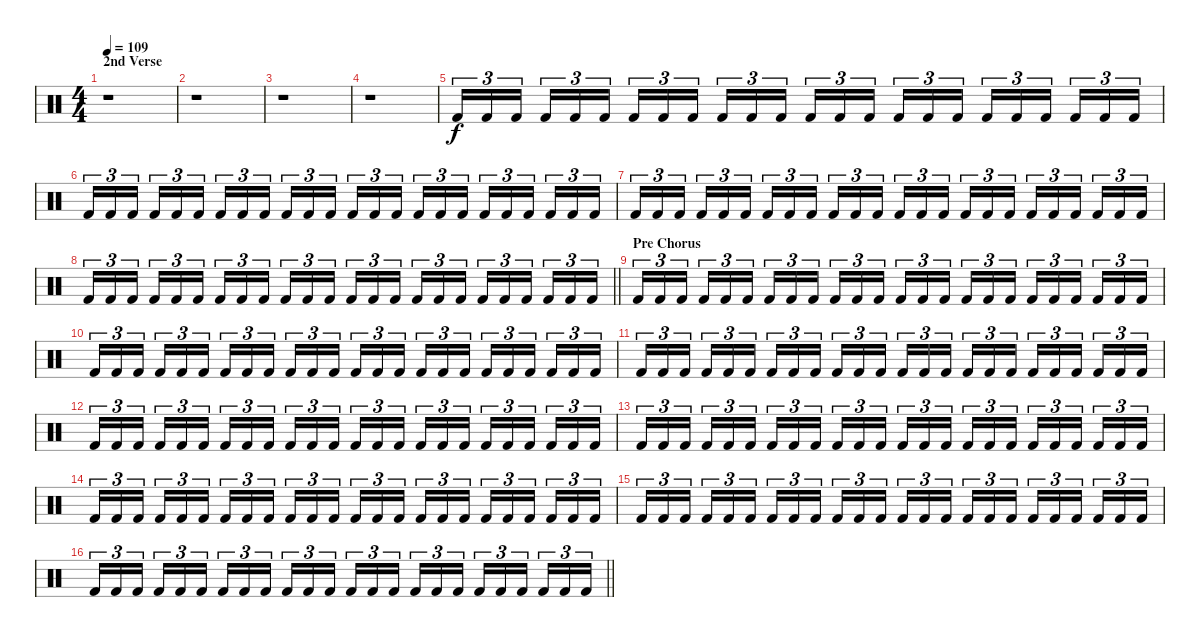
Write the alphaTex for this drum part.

\track "" {instrument percussion}
\staff {score}
\articulation defaults
\ts (4 4)
\section ("" "2nd Verse")
\tempo 109
\clef neutral
\ks c
r.1{dy f} |
r.1 |
r.1 |
r.1 |
"Kick (hit) 2".16{tu (3 2)} "Kick (hit) 2".16{tu (3 2)} "Kick (hit) 2".16{tu (3 2) beam splitsecondary} "Kick (hit) 2".16{tu (3 2)} "Kick (hit) 2".16{tu (3 2)} "Kick (hit) 2".16{tu (3 2)} "Kick (hit) 2".16{tu (3 2)} "Kick (hit) 2".16{tu (3 2)} "Kick (hit) 2".16{tu (3 2) beam splitsecondary} "Kick (hit) 2".16{tu (3 2)} "Kick (hit) 2".16{tu (3 2)} "Kick (hit) 2".16{tu (3 2)} "Kick (hit) 2".16{tu (3 2)} "Kick (hit) 2".16{tu (3 2)} "Kick (hit) 2".16{tu (3 2) beam splitsecondary} "Kick (hit) 2".16{tu (3 2)} "Kick (hit) 2".16{tu (3 2)} "Kick (hit) 2".16{tu (3 2)} "Kick (hit) 2".16{tu (3 2)} "Kick (hit) 2".16{tu (3 2)} "Kick (hit) 2".16{tu (3 2) beam splitsecondary} "Kick (hit) 2".16{tu (3 2)} "Kick (hit) 2".16{tu (3 2)} "Kick (hit) 2".16{tu (3 2)} |
"Kick (hit) 2".16{tu (3 2)} "Kick (hit) 2".16{tu (3 2)} "Kick (hit) 2".16{tu (3 2) beam splitsecondary} "Kick (hit) 2".16{tu (3 2)} "Kick (hit) 2".16{tu (3 2)} "Kick (hit) 2".16{tu (3 2)} "Kick (hit) 2".16{tu (3 2)} "Kick (hit) 2".16{tu (3 2)} "Kick (hit) 2".16{tu (3 2) beam splitsecondary} "Kick (hit) 2".16{tu (3 2)} "Kick (hit) 2".16{tu (3 2)} "Kick (hit) 2".16{tu (3 2)} "Kick (hit) 2".16{tu (3 2)} "Kick (hit) 2".16{tu (3 2)} "Kick (hit) 2".16{tu (3 2) beam splitsecondary} "Kick (hit) 2".16{tu (3 2)} "Kick (hit) 2".16{tu (3 2)} "Kick (hit) 2".16{tu (3 2)} "Kick (hit) 2".16{tu (3 2)} "Kick (hit) 2".16{tu (3 2)} "Kick (hit) 2".16{tu (3 2) beam splitsecondary} "Kick (hit) 2".16{tu (3 2)} "Kick (hit) 2".16{tu (3 2)} "Kick (hit) 2".16{tu (3 2)} |
"Kick (hit) 2".16{tu (3 2)} "Kick (hit) 2".16{tu (3 2)} "Kick (hit) 2".16{tu (3 2) beam splitsecondary} "Kick (hit) 2".16{tu (3 2)} "Kick (hit) 2".16{tu (3 2)} "Kick (hit) 2".16{tu (3 2)} "Kick (hit) 2".16{tu (3 2)} "Kick (hit) 2".16{tu (3 2)} "Kick (hit) 2".16{tu (3 2) beam splitsecondary} "Kick (hit) 2".16{tu (3 2)} "Kick (hit) 2".16{tu (3 2)} "Kick (hit) 2".16{tu (3 2)} "Kick (hit) 2".16{tu (3 2)} "Kick (hit) 2".16{tu (3 2)} "Kick (hit) 2".16{tu (3 2) beam splitsecondary} "Kick (hit) 2".16{tu (3 2)} "Kick (hit) 2".16{tu (3 2)} "Kick (hit) 2".16{tu (3 2)} "Kick (hit) 2".16{tu (3 2)} "Kick (hit) 2".16{tu (3 2)} "Kick (hit) 2".16{tu (3 2) beam splitsecondary} "Kick (hit) 2".16{tu (3 2)} "Kick (hit) 2".16{tu (3 2)} "Kick (hit) 2".16{tu (3 2)} |
\barLineRight lightlight "Kick (hit) 2".16{tu (3 2)} "Kick (hit) 2".16{tu (3 2)} "Kick (hit) 2".16{tu (3 2) beam splitsecondary} "Kick (hit) 2".16{tu (3 2)} "Kick (hit) 2".16{tu (3 2)} "Kick (hit) 2".16{tu (3 2)} "Kick (hit) 2".16{tu (3 2)} "Kick (hit) 2".16{tu (3 2)} "Kick (hit) 2".16{tu (3 2) beam splitsecondary} "Kick (hit) 2".16{tu (3 2)} "Kick (hit) 2".16{tu (3 2)} "Kick (hit) 2".16{tu (3 2)} "Kick (hit) 2".16{tu (3 2)} "Kick (hit) 2".16{tu (3 2)} "Kick (hit) 2".16{tu (3 2) beam splitsecondary} "Kick (hit) 2".16{tu (3 2)} "Kick (hit) 2".16{tu (3 2)} "Kick (hit) 2".16{tu (3 2)} "Kick (hit) 2".16{tu (3 2)} "Kick (hit) 2".16{tu (3 2)} "Kick (hit) 2".16{tu (3 2) beam splitsecondary} "Kick (hit) 2".16{tu (3 2)} "Kick (hit) 2".16{tu (3 2)} "Kick (hit) 2".16{tu (3 2)}
|
\section ("" "Pre Chorus")
"Kick (hit) 2".16{tu (3 2)} "Kick (hit) 2".16{tu (3 2)} "Kick (hit) 2".16{tu (3 2) beam splitsecondary} "Kick (hit) 2".16{tu (3 2)} "Kick (hit) 2".16{tu (3 2)} "Kick (hit) 2".16{tu (3 2)} "Kick (hit) 2".16{tu (3 2)} "Kick (hit) 2".16{tu (3 2)} "Kick (hit) 2".16{tu (3 2) beam splitsecondary} "Kick (hit) 2".16{tu (3 2)} "Kick (hit) 2".16{tu (3 2)} "Kick (hit) 2".16{tu (3 2)} "Kick (hit) 2".16{tu (3 2)} "Kick (hit) 2".16{tu (3 2)} "Kick (hit) 2".16{tu (3 2) beam splitsecondary} "Kick (hit) 2".16{tu (3 2)} "Kick (hit) 2".16{tu (3 2)} "Kick (hit) 2".16{tu (3 2)} "Kick (hit) 2".16{tu (3 2)} "Kick (hit) 2".16{tu (3 2)} "Kick (hit) 2".16{tu (3 2) beam splitsecondary} "Kick (hit) 2".16{tu (3 2)} "Kick (hit) 2".16{tu (3 2)} "Kick (hit) 2".16{tu (3 2)} |
"Kick (hit) 2".16{tu (3 2)} "Kick (hit) 2".16{tu (3 2)} "Kick (hit) 2".16{tu (3 2) beam splitsecondary} "Kick (hit) 2".16{tu (3 2)} "Kick (hit) 2".16{tu (3 2)} "Kick (hit) 2".16{tu (3 2)} "Kick (hit) 2".16{tu (3 2)} "Kick (hit) 2".16{tu (3 2)} "Kick (hit) 2".16{tu (3 2) beam splitsecondary} "Kick (hit) 2".16{tu (3 2)} "Kick (hit) 2".16{tu (3 2)} "Kick (hit) 2".16{tu (3 2)} "Kick (hit) 2".16{tu (3 2)} "Kick (hit) 2".16{tu (3 2)} "Kick (hit) 2".16{tu (3 2) beam splitsecondary} "Kick (hit) 2".16{tu (3 2)} "Kick (hit) 2".16{tu (3 2)} "Kick (hit) 2".16{tu (3 2)} "Kick (hit) 2".16{tu (3 2)} "Kick (hit) 2".16{tu (3 2)} "Kick (hit) 2".16{tu (3 2) beam splitsecondary} "Kick (hit) 2".16{tu (3 2)} "Kick (hit) 2".16{tu (3 2)} "Kick (hit) 2".16{tu (3 2)} |
"Kick (hit) 2".16{tu (3 2)} "Kick (hit) 2".16{tu (3 2)} "Kick (hit) 2".16{tu (3 2) beam splitsecondary} "Kick (hit) 2".16{tu (3 2)} "Kick (hit) 2".16{tu (3 2)} "Kick (hit) 2".16{tu (3 2)} "Kick (hit) 2".16{tu (3 2)} "Kick (hit) 2".16{tu (3 2)} "Kick (hit) 2".16{tu (3 2) beam splitsecondary} "Kick (hit) 2".16{tu (3 2)} "Kick (hit) 2".16{tu (3 2)} "Kick (hit) 2".16{tu (3 2)} "Kick (hit) 2".16{tu (3 2)} "Kick (hit) 2".16{tu (3 2)} "Kick (hit) 2".16{tu (3 2) beam splitsecondary} "Kick (hit) 2".16{tu (3 2)} "Kick (hit) 2".16{tu (3 2)} "Kick (hit) 2".16{tu (3 2)} "Kick (hit) 2".16{tu (3 2)} "Kick (hit) 2".16{tu (3 2)} "Kick (hit) 2".16{tu (3 2) beam splitsecondary} "Kick (hit) 2".16{tu (3 2)} "Kick (hit) 2".16{tu (3 2)} "Kick (hit) 2".16{tu (3 2)} |
"Kick (hit) 2".16{tu (3 2)} "Kick (hit) 2".16{tu (3 2)} "Kick (hit) 2".16{tu (3 2) beam splitsecondary} "Kick (hit) 2".16{tu (3 2)} "Kick (hit) 2".16{tu (3 2)} "Kick (hit) 2".16{tu (3 2)} "Kick (hit) 2".16{tu (3 2)} "Kick (hit) 2".16{tu (3 2)} "Kick (hit) 2".16{tu (3 2) beam splitsecondary} "Kick (hit) 2".16{tu (3 2)} "Kick (hit) 2".16{tu (3 2)} "Kick (hit) 2".16{tu (3 2)} "Kick (hit) 2".16{tu (3 2)} "Kick (hit) 2".16{tu (3 2)} "Kick (hit) 2".16{tu (3 2) beam splitsecondary} "Kick (hit) 2".16{tu (3 2)} "Kick (hit) 2".16{tu (3 2)} "Kick (hit) 2".16{tu (3 2)} "Kick (hit) 2".16{tu (3 2)} "Kick (hit) 2".16{tu (3 2)} "Kick (hit) 2".16{tu (3 2) beam splitsecondary} "Kick (hit) 2".16{tu (3 2)} "Kick (hit) 2".16{tu (3 2)} "Kick (hit) 2".16{tu (3 2)} |
"Kick (hit) 2".16{tu (3 2)} "Kick (hit) 2".16{tu (3 2)} "Kick (hit) 2".16{tu (3 2) beam splitsecondary} "Kick (hit) 2".16{tu (3 2)} "Kick (hit) 2".16{tu (3 2)} "Kick (hit) 2".16{tu (3 2)} "Kick (hit) 2".16{tu (3 2)} "Kick (hit) 2".16{tu (3 2)} "Kick (hit) 2".16{tu (3 2) beam splitsecondary} "Kick (hit) 2".16{tu (3 2)} "Kick (hit) 2".16{tu (3 2)} "Kick (hit) 2".16{tu (3 2)} "Kick (hit) 2".16{tu (3 2)} "Kick (hit) 2".16{tu (3 2)} "Kick (hit) 2".16{tu (3 2) beam splitsecondary} "Kick (hit) 2".16{tu (3 2)} "Kick (hit) 2".16{tu (3 2)} "Kick (hit) 2".16{tu (3 2)} "Kick (hit) 2".16{tu (3 2)} "Kick (hit) 2".16{tu (3 2)} "Kick (hit) 2".16{tu (3 2) beam splitsecondary} "Kick (hit) 2".16{tu (3 2)} "Kick (hit) 2".16{tu (3 2)} "Kick (hit) 2".16{tu (3 2)} |
"Kick (hit) 2".16{tu (3 2)} "Kick (hit) 2".16{tu (3 2)} "Kick (hit) 2".16{tu (3 2) beam splitsecondary} "Kick (hit) 2".16{tu (3 2)} "Kick (hit) 2".16{tu (3 2)} "Kick (hit) 2".16{tu (3 2)} "Kick (hit) 2".16{tu (3 2)} "Kick (hit) 2".16{tu (3 2)} "Kick (hit) 2".16{tu (3 2) beam splitsecondary} "Kick (hit) 2".16{tu (3 2)} "Kick (hit) 2".16{tu (3 2)} "Kick (hit) 2".16{tu (3 2)} "Kick (hit) 2".16{tu (3 2)} "Kick (hit) 2".16{tu (3 2)} "Kick (hit) 2".16{tu (3 2) beam splitsecondary} "Kick (hit) 2".16{tu (3 2)} "Kick (hit) 2".16{tu (3 2)} "Kick (hit) 2".16{tu (3 2)} "Kick (hit) 2".16{tu (3 2)} "Kick (hit) 2".16{tu (3 2)} "Kick (hit) 2".16{tu (3 2) beam splitsecondary} "Kick (hit) 2".16{tu (3 2)} "Kick (hit) 2".16{tu (3 2)} "Kick (hit) 2".16{tu (3 2)} |
"Kick (hit) 2".16{tu (3 2)} "Kick (hit) 2".16{tu (3 2)} "Kick (hit) 2".16{tu (3 2) beam splitsecondary} "Kick (hit) 2".16{tu (3 2)} "Kick (hit) 2".16{tu (3 2)} "Kick (hit) 2".16{tu (3 2)} "Kick (hit) 2".16{tu (3 2)} "Kick (hit) 2".16{tu (3 2)} "Kick (hit) 2".16{tu (3 2) beam splitsecondary} "Kick (hit) 2".16{tu (3 2)} "Kick (hit) 2".16{tu (3 2)} "Kick (hit) 2".16{tu (3 2)} "Kick (hit) 2".16{tu (3 2)} "Kick (hit) 2".16{tu (3 2)} "Kick (hit) 2".16{tu (3 2) beam splitsecondary} "Kick (hit) 2".16{tu (3 2)} "Kick (hit) 2".16{tu (3 2)} "Kick (hit) 2".16{tu (3 2)} "Kick (hit) 2".16{tu (3 2)} "Kick (hit) 2".16{tu (3 2)} "Kick (hit) 2".16{tu (3 2) beam splitsecondary} "Kick (hit) 2".16{tu (3 2)} "Kick (hit) 2".16{tu (3 2)} "Kick (hit) 2".16{tu (3 2)} |
\barLineRight lightlight "Kick (hit) 2".16{tu (3 2)} "Kick (hit) 2".16{tu (3 2)} "Kick (hit) 2".16{tu (3 2) beam splitsecondary} "Kick (hit) 2".16{tu (3 2)} "Kick (hit) 2".16{tu (3 2)} "Kick (hit) 2".16{tu (3 2)} "Kick (hit) 2".16{tu (3 2)} "Kick (hit) 2".16{tu (3 2)} "Kick (hit) 2".16{tu (3 2) beam splitsecondary} "Kick (hit) 2".16{tu (3 2)} "Kick (hit) 2".16{tu (3 2)} "Kick (hit) 2".16{tu (3 2)} "Kick (hit) 2".16{tu (3 2)} "Kick (hit) 2".16{tu (3 2)} "Kick (hit) 2".16{tu (3 2) beam splitsecondary} "Kick (hit) 2".16{tu (3 2)} "Kick (hit) 2".16{tu (3 2)} "Kick (hit) 2".16{tu (3 2)} "Kick (hit) 2".16{tu (3 2)} "Kick (hit) 2".16{tu (3 2)} "Kick (hit) 2".16{tu (3 2) beam splitsecondary} "Kick (hit) 2".16{tu (3 2)} "Kick (hit) 2".16{tu (3 2)} "Kick (hit) 2".16{tu (3 2)}
